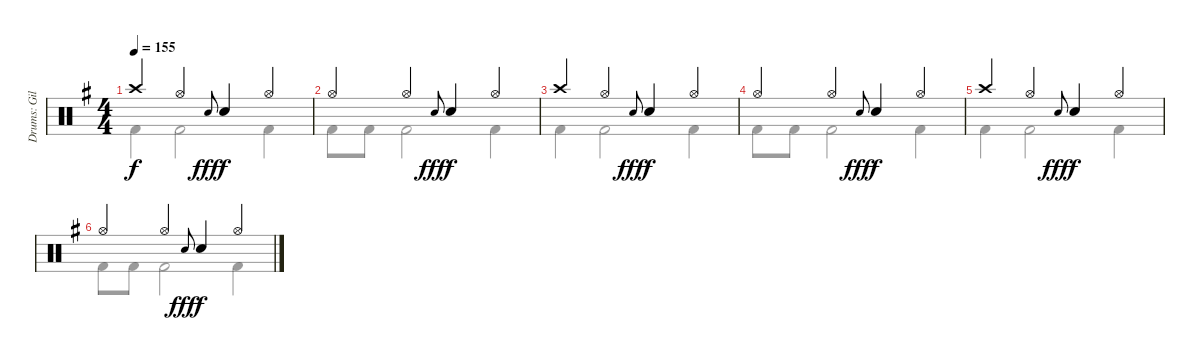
\track ("Drums: Gil" "Drums: Gil") {instrument percussion}
\staff {score}
\articulation defaults
\voice
\ts (4 4)
\tempo 155
\clef neutral
\ks g "Crash high (hit)".4{dy f} "Hi-Hat (open)".4 "Electric Snare (hit)".8{gr onbeat dy fff} "Snare (hit) 2".4{dy f} "Hi-Hat (open)".4
|
"Hi-Hat (open)".4 "Hi-Hat (open)".4 "Electric Snare (hit)".8{gr onbeat dy fff} "Snare (hit) 2".4{dy f} "Hi-Hat (open)".4 |
"Crash high (hit)".4{volume 0} "Hi-Hat (open)".4 "Electric Snare (hit)".8{gr onbeat dy fff} "Snare (hit) 2".4{dy f} "Hi-Hat (open)".4 |
"Hi-Hat (open)".4 "Hi-Hat (open)".4 "Electric Snare (hit)".8{gr onbeat dy fff} "Snare (hit) 2".4{dy f} "Hi-Hat (open)".4 |
"Crash high (hit)".4 "Hi-Hat (open)".4 "Electric Snare (hit)".8{gr onbeat dy fff} "Snare (hit) 2".4{dy f} "Hi-Hat (open)".4 |
"Hi-Hat (open)".4 "Hi-Hat (open)".4 "Electric Snare (hit)".8{gr onbeat dy fff} "Snare (hit) 2".4{dy f} "Hi-Hat (open)".4
\voice
\clef neutral
\ottava regular
\simile none
\ks g "Kick (hit) 2".4{dy f} "Kick (hit) 2".2 "Kick (hit) 2".4
|
"Kick (hit) 2".8 "Kick (hit) 2".8 "Kick (hit) 2".2 "Kick (hit) 2".4 |
"Kick (hit) 2".4 "Kick (hit) 2".2 "Kick (hit) 2".4 |
"Kick (hit) 2".8 "Kick (hit) 2".8 "Kick (hit) 2".2 "Kick (hit) 2".4 |
"Kick (hit) 2".4 "Kick (hit) 2".2 "Kick (hit) 2".4 |
"Kick (hit) 2".8 "Kick (hit) 2".8 "Kick (hit) 2".2 "Kick (hit) 2".4
